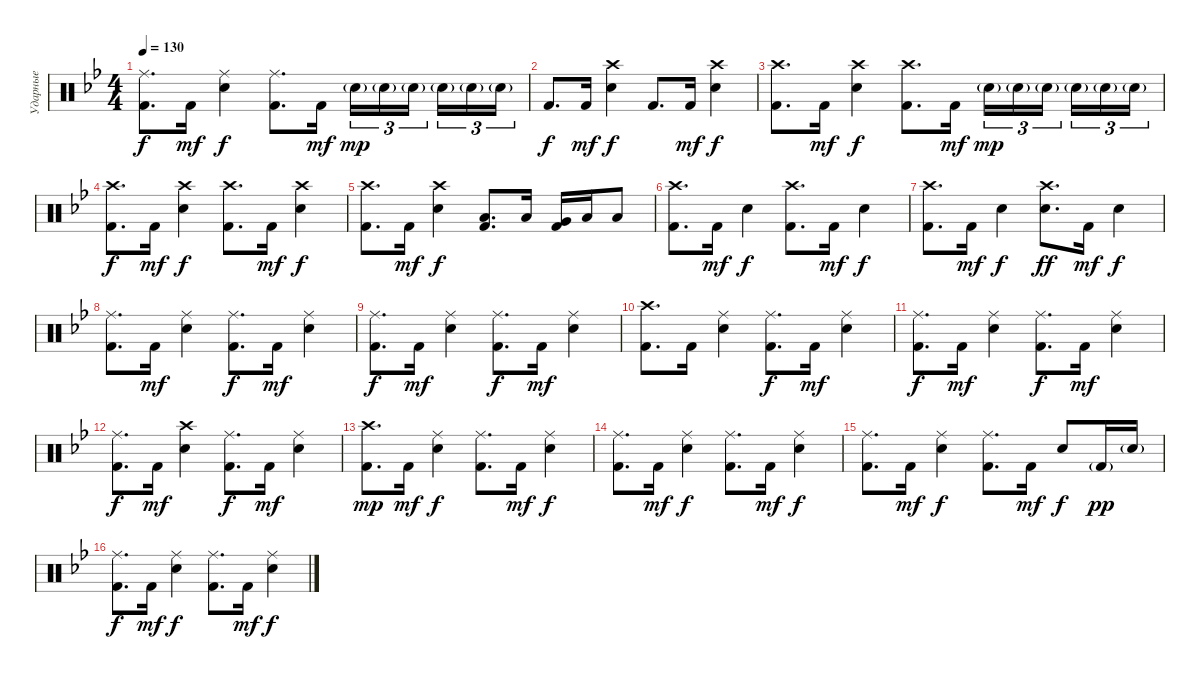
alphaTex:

\track ("Ударные" "Ударные") {instrument percussion}
\staff {score}
\articulation defaults
\ts (4 4)
\tempo 130
\clef neutral
\ks gminor
("Ride (middle)" "Kick (hit) 2").8{d dy f} "Kick (hit) 2".16{dy mf} ("Ride (middle)" "Snare (hit) 2").4{dy f} ("Ride (middle)" "Kick (hit) 2").8{d} "Kick (hit) 2".16{dy mf} "Snare (hit) 2"{g}.16{tu (3 2) dy mp} "Snare (hit) 2"{g}.16{tu (3 2)} "Snare (hit) 2"{g}.16{tu (3 2) beam splitsecondary} "Snare (hit) 2"{g}.16{tu (3 2)} "Snare (hit) 2"{g}.16{tu (3 2)} "Snare (hit) 2"{g}.16{tu (3 2)} |
"Kick (hit) 2".8{d dy f} "Kick (hit) 2".16{dy mf} ("Crash high (hit)" "Snare (hit) 2").4{dy f} "Kick (hit) 2".8{d} "Kick (hit) 2".16{dy mf} ("Crash high (hit)" "Snare (hit) 2").4{dy f} |
("Crash high (hit)" "Kick (hit) 2").8{d} "Kick (hit) 2".16{dy mf} ("Crash high (hit)" "Snare (hit) 2").4{dy f} ("Crash high (hit)" "Kick (hit) 2").8{d} "Kick (hit) 2".16{dy mf} "Snare (hit) 2"{g}.16{tu (3 2) dy mp} "Snare (hit) 2"{g}.16{tu (3 2)} "Snare (hit) 2"{g}.16{tu (3 2) beam splitsecondary} "Snare (hit) 2"{g}.16{tu (3 2)} "Snare (hit) 2"{g}.16{tu (3 2)} "Snare (hit) 2"{g}.16{tu (3 2)} |
("Crash high (hit)" "Kick (hit) 2").8{d dy f} "Kick (hit) 2".16{dy mf} ("Crash high (hit)" "Snare (hit) 2").4{dy f} ("Crash high (hit)" "Kick (hit) 2").8{d} "Kick (hit) 2".16{dy mf} ("Crash high (hit)" "Snare (hit) 2").4{dy f} |
("Crash high (hit)" "Kick (hit) 2").8{d} "Kick (hit) 2".16{dy mf} ("Crash high (hit)" "Snare (hit) 2").4{dy f} ("Low Floor Tom (hit)" "Kick (hit) 2").8{d} "Low Floor Tom (hit)".16 ("Very Low Tom (hit)" "Kick (hit) 2").16 "Low Tom (hit)".16 "Low Floor Tom (hit)".8 |
("Crash high (hit)" "Kick (hit) 2").8{d} "Kick (hit) 2".16{dy mf} "Snare (hit) 2".4{dy f} ("Crash high (hit)" "Kick (hit) 2").8{d} "Kick (hit) 2".16{dy mf} "Snare (hit) 2".4{dy f} |
("Crash high (hit)" "Kick (hit) 2").8{d} "Kick (hit) 2".16{dy mf} "Snare (hit) 2".4{dy f} ("Crash high (hit)" "Snare (hit) 2").8{d dy ff} "Kick (hit) 2".16{dy mf} "Snare (hit) 2".4{dy f} |
("Ride (middle)" "Kick (hit) 2").8{d} "Kick (hit) 2".16{dy mf} ("Ride (middle)" "Snare (hit) 2").4 ("Ride (middle)" "Kick (hit) 2").8{d dy f} "Kick (hit) 2".16{dy mf} ("Ride (middle)" "Snare (hit) 2").4 |
("Ride (middle)" "Kick (hit) 2").8{d dy f} "Kick (hit) 2".16{dy mf} ("Ride (middle)" "Snare (hit) 2").4 ("Ride (middle)" "Kick (hit) 2").8{d dy f} "Kick (hit) 2".16{dy mf} ("Ride (middle)" "Snare (hit) 2").4 |
("Crash high (hit)" "Kick (hit) 2").8{d} "Kick (hit) 2".16 ("Ride (middle)" "Snare (hit) 2").4 ("Ride (middle)" "Kick (hit) 2").8{d dy f} "Kick (hit) 2".16{dy mf} ("Ride (middle)" "Snare (hit) 2").4 |
("Ride (middle)" "Kick (hit) 2").8{d dy f} "Kick (hit) 2".16{dy mf} ("Ride (middle)" "Snare (hit) 2").4 ("Ride (middle)" "Kick (hit) 2").8{d dy f} "Kick (hit) 2".16{dy mf} ("Ride (middle)" "Snare (hit) 2").4 |
("Ride (middle)" "Kick (hit) 2").8{d dy f} "Kick (hit) 2".16{dy mf} ("Crash high (hit)" "Snare (hit) 2").4 ("Ride (middle)" "Kick (hit) 2").8{d dy f} "Kick (hit) 2".16{dy mf} ("Ride (middle)" "Snare (hit) 2").4 |
("Crash high (hit)" "Kick (hit) 2").8{d dy mp} "Kick (hit) 2".16{dy mf} ("Ride (middle)" "Snare (hit) 2").4{dy f} ("Ride (middle)" "Kick (hit) 2").8{d} "Kick (hit) 2".16{dy mf} ("Ride (middle)" "Snare (hit) 2").4{dy f} |
("Ride (middle)" "Kick (hit) 2").8{d} "Kick (hit) 2".16{dy mf} ("Ride (middle)" "Snare (hit) 2").4{dy f} ("Ride (middle)" "Kick (hit) 2").8{d} "Kick (hit) 2".16{dy mf} ("Ride (middle)" "Snare (hit) 2").4{dy f} |
("Ride (middle)" "Kick (hit) 2").8{d} "Kick (hit) 2".16{dy mf} ("Ride (middle)" "Snare (hit) 2").4{dy f} ("Ride (middle)" "Kick (hit) 2").8{d} "Kick (hit) 2".16{dy mf} "Snare (hit) 2".8{dy f} "Kick (hit) 2"{g}.16{dy pp} "Snare (hit) 2"{g}.16 |
("Ride (middle)" "Kick (hit) 2").8{d dy f} "Kick (hit) 2".16{dy mf} ("Ride (middle)" "Snare (hit) 2").4{dy f} ("Ride (middle)" "Kick (hit) 2").8{d} "Kick (hit) 2".16{dy mf} ("Ride (middle)" "Snare (hit) 2").4{dy f}
